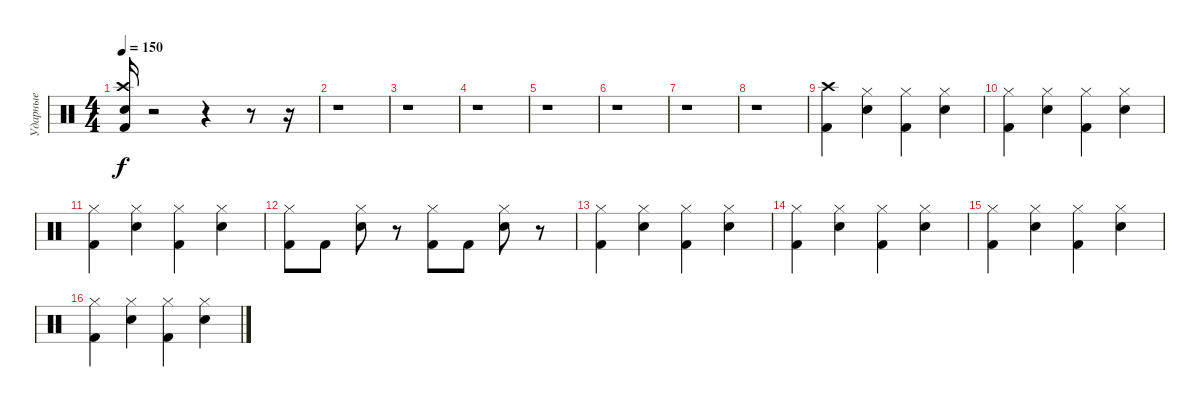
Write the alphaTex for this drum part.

\track ("Ударные" "Ударные") {instrument percussion}
\staff {score}
\articulation defaults
\ts (4 4)
\tempo 150
\clef neutral
\ks c
("Kick (hit) 2" "Crash high (hit)" "Electric Snare (hit)").16{dy f} r.2 r.4 r.8 r.16 |
r.1 |
r.1 |
r.1 |
r.1 |
r.1 |
r.1 |
r.1 |
("Crash high (hit)" "Kick (hit) 2").4 ("Hi-Hat (closed)" "Electric Snare (hit)").4 ("Hi-Hat (closed)" "Kick (hit) 2").4 ("Hi-Hat (closed)" "Electric Snare (hit)").4 |
("Hi-Hat (closed)" "Kick (hit) 2").4 ("Hi-Hat (closed)" "Electric Snare (hit)").4 ("Hi-Hat (closed)" "Kick (hit) 2").4 ("Hi-Hat (closed)" "Electric Snare (hit)").4 |
("Hi-Hat (closed)" "Kick (hit) 2").4 ("Hi-Hat (closed)" "Electric Snare (hit)").4 ("Hi-Hat (closed)" "Kick (hit) 2").4 ("Hi-Hat (closed)" "Electric Snare (hit)").4 |
("Hi-Hat (closed)" "Kick (hit) 2").8 "Kick (hit) 2".8 ("Hi-Hat (closed)" "Electric Snare (hit)").8 r.8 ("Hi-Hat (closed)" "Kick (hit) 2").8 "Kick (hit) 2".8 ("Hi-Hat (closed)" "Electric Snare (hit)").8 r.8 |
("Hi-Hat (closed)" "Kick (hit) 2").4 ("Hi-Hat (closed)" "Electric Snare (hit)").4 ("Hi-Hat (closed)" "Kick (hit) 2").4 ("Hi-Hat (closed)" "Electric Snare (hit)").4 |
("Hi-Hat (closed)" "Kick (hit) 2").4 ("Hi-Hat (closed)" "Electric Snare (hit)").4 ("Hi-Hat (closed)" "Kick (hit) 2").4 ("Hi-Hat (closed)" "Electric Snare (hit)").4 |
("Hi-Hat (closed)" "Kick (hit) 2").4 ("Hi-Hat (closed)" "Electric Snare (hit)").4 ("Hi-Hat (closed)" "Kick (hit) 2").4 ("Hi-Hat (closed)" "Electric Snare (hit)").4 |
("Hi-Hat (closed)" "Kick (hit) 2").4 ("Hi-Hat (closed)" "Electric Snare (hit)").4 ("Hi-Hat (closed)" "Kick (hit) 2").4 ("Hi-Hat (closed)" "Electric Snare (hit)").4
